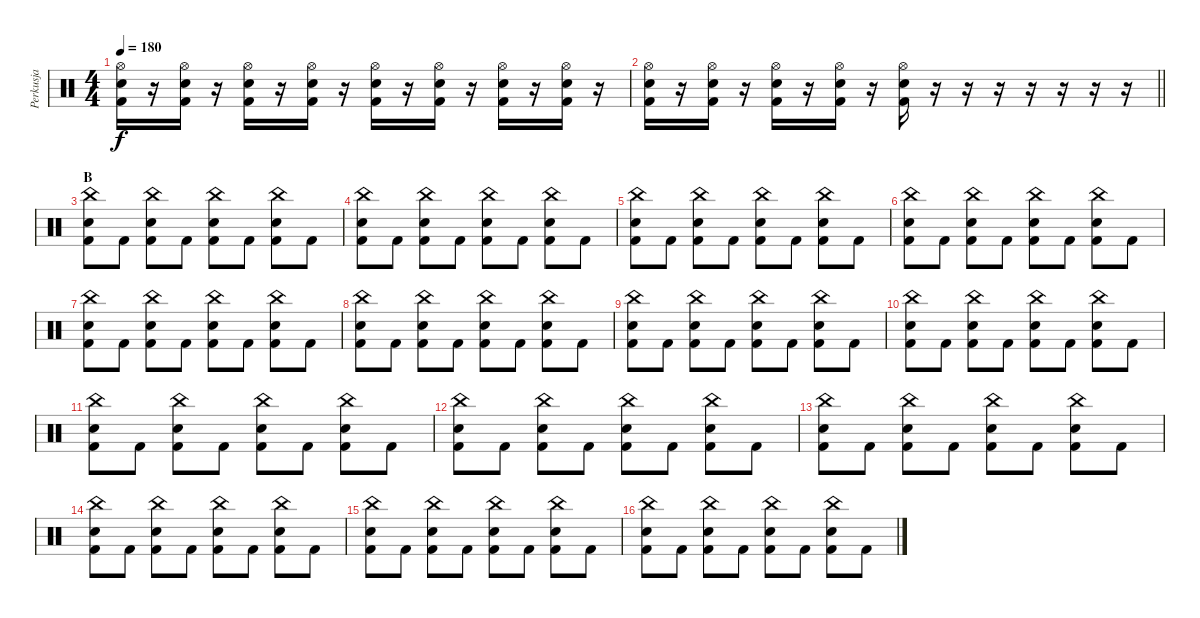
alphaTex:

\track ("Perkusja" "Perkusja") {instrument percussion}
\staff {score}
\articulation defaults
\ts (4 4)
\tempo 180
\clef neutral
\ks c
("Hi-Hat (open)" "Snare (hit) 2" "Kick (hit) 2").16{dy f} r.16 ("Hi-Hat (open)" "Snare (hit) 2" "Kick (hit) 2").16 r.16 ("Hi-Hat (open)" "Snare (hit) 2" "Kick (hit) 2").16 r.16 ("Hi-Hat (open)" "Snare (hit) 2" "Kick (hit) 2").16 r.16 ("Hi-Hat (open)" "Snare (hit) 2" "Kick (hit) 2").16 r.16 ("Hi-Hat (open)" "Snare (hit) 2" "Kick (hit) 2").16 r.16 ("Hi-Hat (open)" "Snare (hit) 2" "Kick (hit) 2").16 r.16 ("Hi-Hat (open)" "Snare (hit) 2" "Kick (hit) 2").16 r.16 |
\barLineRight lightlight
("Hi-Hat (open)" "Snare (hit) 2" "Kick (hit) 2").16 r.16 ("Hi-Hat (open)" "Snare (hit) 2" "Kick (hit) 2").16 r.16 ("Hi-Hat (open)" "Snare (hit) 2" "Kick (hit) 2").16 r.16 ("Hi-Hat (open)" "Snare (hit) 2" "Kick (hit) 2").16 r.16 ("Hi-Hat (open)" "Snare (hit) 2" "Kick (hit) 2").16 r.16 r.16 r.16 r.16 r.16 r.16 r.16 |
\section ("" "B")
("China (hit)" "Snare (hit) 2" "Kick (hit) 2").8 "Kick (hit) 2".8 ("China (hit)" "Snare (hit) 2" "Kick (hit) 2").8 "Kick (hit) 2".8 ("China (hit)" "Snare (hit) 2" "Kick (hit) 2").8 "Kick (hit) 2".8 ("China (hit)" "Snare (hit) 2" "Kick (hit) 2").8 "Kick (hit) 2".8 |
("China (hit)" "Snare (hit) 2" "Kick (hit) 2").8 "Kick (hit) 2".8 ("China (hit)" "Snare (hit) 2" "Kick (hit) 2").8 "Kick (hit) 2".8 ("China (hit)" "Snare (hit) 2" "Kick (hit) 2").8 "Kick (hit) 2".8 ("China (hit)" "Snare (hit) 2" "Kick (hit) 2").8 "Kick (hit) 2".8 |
("China (hit)" "Snare (hit) 2" "Kick (hit) 2").8 "Kick (hit) 2".8 ("China (hit)" "Snare (hit) 2" "Kick (hit) 2").8 "Kick (hit) 2".8 ("China (hit)" "Snare (hit) 2" "Kick (hit) 2").8 "Kick (hit) 2".8 ("China (hit)" "Snare (hit) 2" "Kick (hit) 2").8 "Kick (hit) 2".8 |
("China (hit)" "Snare (hit) 2" "Kick (hit) 2").8 "Kick (hit) 2".8 ("China (hit)" "Snare (hit) 2" "Kick (hit) 2").8 "Kick (hit) 2".8 ("China (hit)" "Snare (hit) 2" "Kick (hit) 2").8 "Kick (hit) 2".8 ("China (hit)" "Snare (hit) 2" "Kick (hit) 2").8 "Kick (hit) 2".8 |
("China (hit)" "Snare (hit) 2" "Kick (hit) 2").8 "Kick (hit) 2".8 ("China (hit)" "Snare (hit) 2" "Kick (hit) 2").8 "Kick (hit) 2".8 ("China (hit)" "Snare (hit) 2" "Kick (hit) 2").8 "Kick (hit) 2".8 ("China (hit)" "Snare (hit) 2" "Kick (hit) 2").8 "Kick (hit) 2".8 |
("China (hit)" "Snare (hit) 2" "Kick (hit) 2").8 "Kick (hit) 2".8 ("China (hit)" "Snare (hit) 2" "Kick (hit) 2").8 "Kick (hit) 2".8 ("China (hit)" "Snare (hit) 2" "Kick (hit) 2").8 "Kick (hit) 2".8 ("China (hit)" "Snare (hit) 2" "Kick (hit) 2").8 "Kick (hit) 2".8 |
("China (hit)" "Snare (hit) 2" "Kick (hit) 2").8 "Kick (hit) 2".8 ("China (hit)" "Snare (hit) 2" "Kick (hit) 2").8 "Kick (hit) 2".8 ("China (hit)" "Snare (hit) 2" "Kick (hit) 2").8 "Kick (hit) 2".8 ("China (hit)" "Snare (hit) 2" "Kick (hit) 2").8 "Kick (hit) 2".8 |
("China (hit)" "Snare (hit) 2" "Kick (hit) 2").8 "Kick (hit) 2".8 ("China (hit)" "Snare (hit) 2" "Kick (hit) 2").8 "Kick (hit) 2".8 ("China (hit)" "Snare (hit) 2" "Kick (hit) 2").8 "Kick (hit) 2".8 ("China (hit)" "Snare (hit) 2" "Kick (hit) 2").8 "Kick (hit) 2".8 |
("China (hit)" "Snare (hit) 2" "Kick (hit) 2").8 "Kick (hit) 2".8 ("China (hit)" "Snare (hit) 2" "Kick (hit) 2").8 "Kick (hit) 2".8 ("China (hit)" "Snare (hit) 2" "Kick (hit) 2").8 "Kick (hit) 2".8 ("China (hit)" "Snare (hit) 2" "Kick (hit) 2").8 "Kick (hit) 2".8 |
("China (hit)" "Snare (hit) 2" "Kick (hit) 2").8 "Kick (hit) 2".8 ("China (hit)" "Snare (hit) 2" "Kick (hit) 2").8 "Kick (hit) 2".8 ("China (hit)" "Snare (hit) 2" "Kick (hit) 2").8 "Kick (hit) 2".8 ("China (hit)" "Snare (hit) 2" "Kick (hit) 2").8 "Kick (hit) 2".8 |
("China (hit)" "Snare (hit) 2" "Kick (hit) 2").8 "Kick (hit) 2".8 ("China (hit)" "Snare (hit) 2" "Kick (hit) 2").8 "Kick (hit) 2".8 ("China (hit)" "Snare (hit) 2" "Kick (hit) 2").8 "Kick (hit) 2".8 ("China (hit)" "Snare (hit) 2" "Kick (hit) 2").8 "Kick (hit) 2".8 |
("China (hit)" "Snare (hit) 2" "Kick (hit) 2").8 "Kick (hit) 2".8 ("China (hit)" "Snare (hit) 2" "Kick (hit) 2").8 "Kick (hit) 2".8 ("China (hit)" "Snare (hit) 2" "Kick (hit) 2").8 "Kick (hit) 2".8 ("China (hit)" "Snare (hit) 2" "Kick (hit) 2").8 "Kick (hit) 2".8 |
("China (hit)" "Snare (hit) 2" "Kick (hit) 2").8 "Kick (hit) 2".8 ("China (hit)" "Snare (hit) 2" "Kick (hit) 2").8 "Kick (hit) 2".8 ("China (hit)" "Snare (hit) 2" "Kick (hit) 2").8 "Kick (hit) 2".8 ("China (hit)" "Snare (hit) 2" "Kick (hit) 2").8 "Kick (hit) 2".8 |
("China (hit)" "Snare (hit) 2" "Kick (hit) 2").8 "Kick (hit) 2".8 ("China (hit)" "Snare (hit) 2" "Kick (hit) 2").8 "Kick (hit) 2".8 ("China (hit)" "Snare (hit) 2" "Kick (hit) 2").8 "Kick (hit) 2".8 ("China (hit)" "Snare (hit) 2" "Kick (hit) 2").8 "Kick (hit) 2".8
